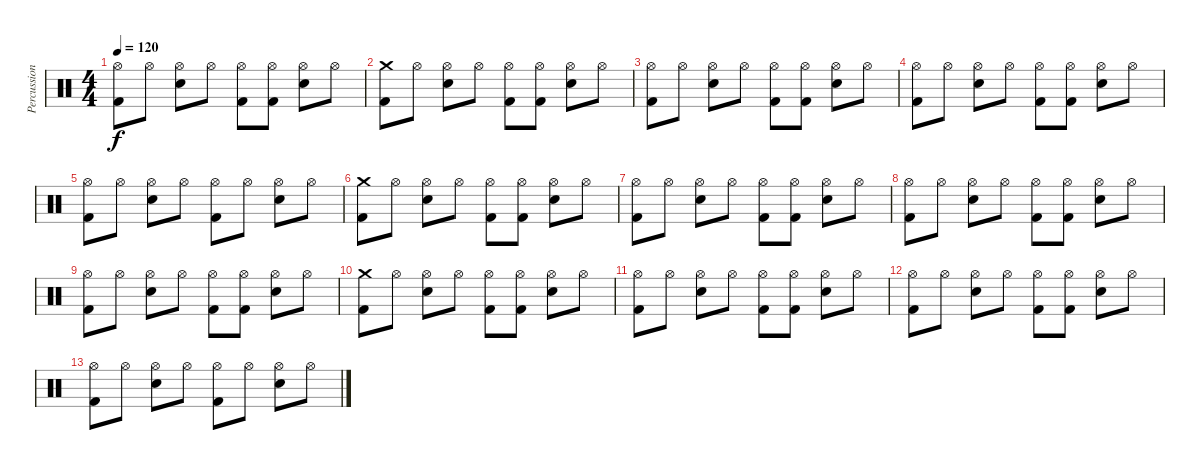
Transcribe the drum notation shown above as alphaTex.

\track ("Percussioni" "Percussion") {instrument percussion}
\staff {score}
\articulation defaults
\ts (4 4)
\tempo 120
\clef neutral
\ks c
("Hi-Hat (open)" "Kick (hit) 2").8{dy f} "Hi-Hat (open)".8 ("Hi-Hat (open)" "Snare (hit) 2").8 "Hi-Hat (open)".8 ("Hi-Hat (open)" "Kick (hit) 2").8 ("Hi-Hat (open)" "Kick (hit) 2").8 ("Hi-Hat (open)" "Snare (hit) 2").8 "Hi-Hat (open)".8 |
("Crash medium (hit)" "Kick (hit) 2").8 "Hi-Hat (open)".8 ("Hi-Hat (open)" "Snare (hit) 2").8 "Hi-Hat (open)".8 ("Hi-Hat (open)" "Kick (hit) 2").8 ("Hi-Hat (open)" "Kick (hit) 2").8 ("Hi-Hat (open)" "Snare (hit) 2").8 "Hi-Hat (open)".8 |
("Hi-Hat (open)" "Kick (hit) 2").8 "Hi-Hat (open)".8 ("Hi-Hat (open)" "Snare (hit) 2").8 "Hi-Hat (open)".8 ("Hi-Hat (open)" "Kick (hit) 2").8 ("Hi-Hat (open)" "Kick (hit) 2").8 ("Hi-Hat (open)" "Snare (hit) 2").8 "Hi-Hat (open)".8 |
("Hi-Hat (open)" "Kick (hit) 2").8 "Hi-Hat (open)".8 ("Hi-Hat (open)" "Snare (hit) 2").8 "Hi-Hat (open)".8 ("Hi-Hat (open)" "Kick (hit) 2").8 ("Hi-Hat (open)" "Kick (hit) 2").8 ("Hi-Hat (open)" "Snare (hit) 2").8 "Hi-Hat (open)".8 |
("Hi-Hat (open)" "Kick (hit) 2").8 "Hi-Hat (open)".8 ("Hi-Hat (open)" "Snare (hit) 2").8 "Hi-Hat (open)".8 ("Hi-Hat (open)" "Kick (hit) 2").8 "Hi-Hat (open)".8 ("Hi-Hat (open)" "Snare (hit) 2").8 "Hi-Hat (open)".8 |
("Crash medium (hit)" "Kick (hit) 2").8 "Hi-Hat (open)".8 ("Hi-Hat (open)" "Snare (hit) 2").8 "Hi-Hat (open)".8 ("Hi-Hat (open)" "Kick (hit) 2").8 ("Hi-Hat (open)" "Kick (hit) 2").8 ("Hi-Hat (open)" "Snare (hit) 2").8 "Hi-Hat (open)".8 |
("Hi-Hat (open)" "Kick (hit) 2").8 "Hi-Hat (open)".8 ("Hi-Hat (open)" "Snare (hit) 2").8 "Hi-Hat (open)".8 ("Hi-Hat (open)" "Kick (hit) 2").8 ("Hi-Hat (open)" "Kick (hit) 2").8 ("Hi-Hat (open)" "Snare (hit) 2").8 "Hi-Hat (open)".8 |
("Hi-Hat (open)" "Kick (hit) 2").8 "Hi-Hat (open)".8 ("Hi-Hat (open)" "Snare (hit) 2").8 "Hi-Hat (open)".8 ("Hi-Hat (open)" "Kick (hit) 2").8 ("Hi-Hat (open)" "Kick (hit) 2").8 ("Hi-Hat (open)" "Snare (hit) 2").8 "Hi-Hat (open)".8 |
("Hi-Hat (open)" "Kick (hit) 2").8 "Hi-Hat (open)".8 ("Hi-Hat (open)" "Snare (hit) 2").8 "Hi-Hat (open)".8 ("Hi-Hat (open)" "Kick (hit) 2").8 ("Hi-Hat (open)" "Kick (hit) 2").8 ("Hi-Hat (open)" "Snare (hit) 2").8 "Hi-Hat (open)".8 |
("Crash medium (hit)" "Kick (hit) 2").8 "Hi-Hat (open)".8 ("Hi-Hat (open)" "Snare (hit) 2").8 "Hi-Hat (open)".8 ("Hi-Hat (open)" "Kick (hit) 2").8 ("Hi-Hat (open)" "Kick (hit) 2").8 ("Hi-Hat (open)" "Snare (hit) 2").8 "Hi-Hat (open)".8 |
("Hi-Hat (open)" "Kick (hit) 2").8 "Hi-Hat (open)".8 ("Hi-Hat (open)" "Snare (hit) 2").8 "Hi-Hat (open)".8 ("Hi-Hat (open)" "Kick (hit) 2").8 ("Hi-Hat (open)" "Kick (hit) 2").8 ("Hi-Hat (open)" "Snare (hit) 2").8 "Hi-Hat (open)".8 |
("Hi-Hat (open)" "Kick (hit) 2").8 "Hi-Hat (open)".8 ("Hi-Hat (open)" "Snare (hit) 2").8 "Hi-Hat (open)".8 ("Hi-Hat (open)" "Kick (hit) 2").8 ("Hi-Hat (open)" "Kick (hit) 2").8 ("Hi-Hat (open)" "Snare (hit) 2").8 "Hi-Hat (open)".8 |
("Hi-Hat (open)" "Kick (hit) 2").8 "Hi-Hat (open)".8 ("Hi-Hat (open)" "Snare (hit) 2").8 "Hi-Hat (open)".8 ("Hi-Hat (open)" "Kick (hit) 2").8 "Hi-Hat (open)".8 ("Hi-Hat (open)" "Snare (hit) 2").8 "Hi-Hat (open)".8
